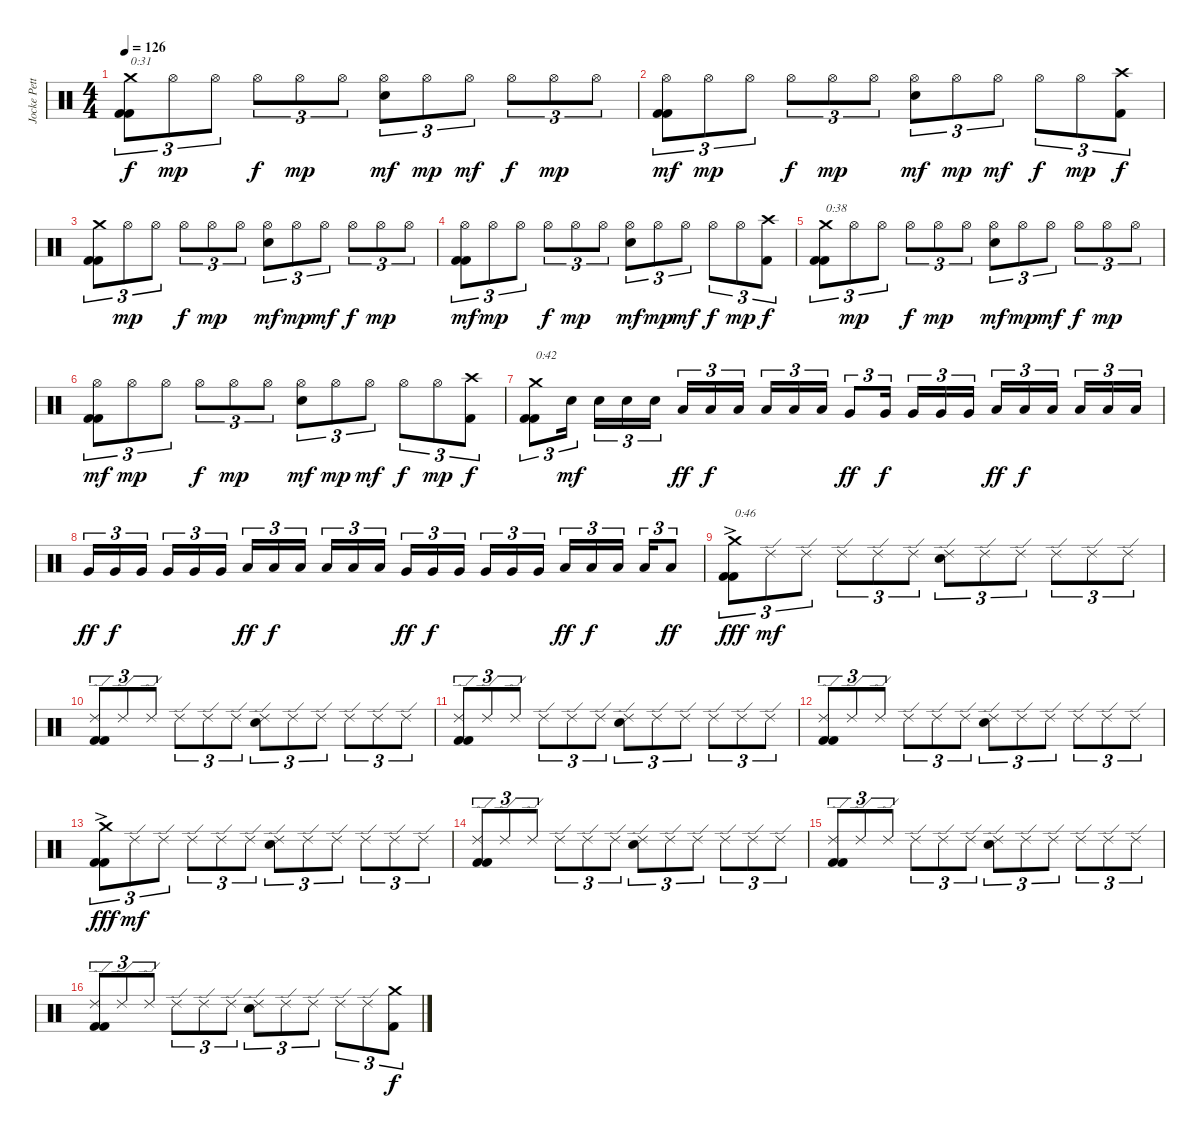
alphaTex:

\track ("Jocke Pettersson" "Jocke Pett") {instrument percussion}
\staff {score}
\articulation defaults
\ts (4 4)
\tempo 126
\clef neutral
\ks c
("Kick (hit) 2" "Kick (hit) 2" "Crash medium (hit)").8{tu (3 2) txt "0:31" dy f} "Hi-Hat (open)".8{tu (3 2) dy mp} "Hi-Hat (open)".8{tu (3 2)} "Hi-Hat (open)".8{tu (3 2) dy f} "Hi-Hat (open)".8{tu (3 2) dy mp} "Hi-Hat (open)".8{tu (3 2)} ("Electric Snare (hit)" "Hi-Hat (open)").8{tu (3 2) dy mf} "Hi-Hat (open)".8{tu (3 2) dy mp} "Hi-Hat (open)".8{tu (3 2) dy mf} "Hi-Hat (open)".8{tu (3 2) dy f} "Hi-Hat (open)".8{tu (3 2) dy mp} "Hi-Hat (open)".8{tu (3 2)} |
("Kick (hit) 2" "Kick (hit) 2" "Hi-Hat (open)").8{tu (3 2) dy mf} "Hi-Hat (open)".8{tu (3 2) dy mp} "Hi-Hat (open)".8{tu (3 2)} "Hi-Hat (open)".8{tu (3 2) dy f} "Hi-Hat (open)".8{tu (3 2) dy mp} "Hi-Hat (open)".8{tu (3 2)} ("Electric Snare (hit)" "Hi-Hat (open)").8{tu (3 2) dy mf} "Hi-Hat (open)".8{tu (3 2) dy mp} "Hi-Hat (open)".8{tu (3 2) dy mf} "Hi-Hat (open)".8{tu (3 2) dy f} "Hi-Hat (open)".8{tu (3 2) dy mp} ("Kick (hit) 2" "Crash high (hit)").8{tu (3 2) dy f} |
("Kick (hit) 2" "Kick (hit) 2" "Crash medium (hit)").8{tu (3 2)} "Hi-Hat (open)".8{tu (3 2) dy mp} "Hi-Hat (open)".8{tu (3 2)} "Hi-Hat (open)".8{tu (3 2) dy f} "Hi-Hat (open)".8{tu (3 2) dy mp} "Hi-Hat (open)".8{tu (3 2)} ("Electric Snare (hit)" "Hi-Hat (open)").8{tu (3 2) dy mf} "Hi-Hat (open)".8{tu (3 2) dy mp} "Hi-Hat (open)".8{tu (3 2) dy mf} "Hi-Hat (open)".8{tu (3 2) dy f} "Hi-Hat (open)".8{tu (3 2) dy mp} "Hi-Hat (open)".8{tu (3 2)} |
("Kick (hit) 2" "Kick (hit) 2" "Hi-Hat (open)").8{tu (3 2) dy mf} "Hi-Hat (open)".8{tu (3 2) dy mp} "Hi-Hat (open)".8{tu (3 2)} "Hi-Hat (open)".8{tu (3 2) dy f} "Hi-Hat (open)".8{tu (3 2) dy mp} "Hi-Hat (open)".8{tu (3 2)} ("Electric Snare (hit)" "Hi-Hat (open)").8{tu (3 2) dy mf} "Hi-Hat (open)".8{tu (3 2) dy mp} "Hi-Hat (open)".8{tu (3 2) dy mf} "Hi-Hat (open)".8{tu (3 2) dy f} "Hi-Hat (open)".8{tu (3 2) dy mp} ("Kick (hit) 2" "Crash high (hit)").8{tu (3 2) dy f} |
("Kick (hit) 2" "Kick (hit) 2" "Crash medium (hit)").8{tu (3 2) txt "0:38"} "Hi-Hat (open)".8{tu (3 2) dy mp} "Hi-Hat (open)".8{tu (3 2)} "Hi-Hat (open)".8{tu (3 2) dy f} "Hi-Hat (open)".8{tu (3 2) dy mp} "Hi-Hat (open)".8{tu (3 2)} ("Electric Snare (hit)" "Hi-Hat (open)").8{tu (3 2) dy mf} "Hi-Hat (open)".8{tu (3 2) dy mp} "Hi-Hat (open)".8{tu (3 2) dy mf} "Hi-Hat (open)".8{tu (3 2) dy f} "Hi-Hat (open)".8{tu (3 2) dy mp} "Hi-Hat (open)".8{tu (3 2)} |
("Kick (hit) 2" "Kick (hit) 2" "Hi-Hat (open)").8{tu (3 2) dy mf} "Hi-Hat (open)".8{tu (3 2) dy mp} "Hi-Hat (open)".8{tu (3 2)} "Hi-Hat (open)".8{tu (3 2) dy f} "Hi-Hat (open)".8{tu (3 2) dy mp} "Hi-Hat (open)".8{tu (3 2)} ("Electric Snare (hit)" "Hi-Hat (open)").8{tu (3 2) dy mf} "Hi-Hat (open)".8{tu (3 2) dy mp} "Hi-Hat (open)".8{tu (3 2) dy mf} "Hi-Hat (open)".8{tu (3 2) dy f} "Hi-Hat (open)".8{tu (3 2) dy mp} ("Kick (hit) 2" "Crash high (hit)").8{tu (3 2) dy f} |
("Kick (hit) 2" "Kick (hit) 2" "Crash medium (hit)").8{tu (3 2) txt "0:42"} "Electric Snare (hit)".16{tu (3 2) dy mf} "Electric Snare (hit)".16{tu (3 2)} "Electric Snare (hit)".16{tu (3 2)} "Electric Snare (hit)".16{tu (3 2)} "Low Tom (hit)".16{tu (3 2) dy ff} "Low Tom (hit)".16{tu (3 2) dy f} "Low Tom (hit)".16{tu (3 2)} "Low Tom (hit)".16{tu (3 2)} "Low Tom (hit)".16{tu (3 2)} "Low Tom (hit)".16{tu (3 2)} "Very Low Tom (hit)".8{tu (3 2) dy ff} "Very Low Tom (hit)".16{tu (3 2) dy f} "Very Low Tom (hit)".16{tu (3 2)} "Very Low Tom (hit)".16{tu (3 2)} "Very Low Tom (hit)".16{tu (3 2)} "Low Tom (hit)".16{tu (3 2) dy ff} "Low Tom (hit)".16{tu (3 2) dy f} "Low Tom (hit)".16{tu (3 2)} "Low Tom (hit)".16{tu (3 2)} "Low Tom (hit)".16{tu (3 2)} "Low Tom (hit)".16{tu (3 2)} |
"Very Low Tom (hit)".16{tu (3 2) dy ff} "Very Low Tom (hit)".16{tu (3 2) dy f} "Very Low Tom (hit)".16{tu (3 2)} "Very Low Tom (hit)".16{tu (3 2)} "Very Low Tom (hit)".16{tu (3 2)} "Very Low Tom (hit)".16{tu (3 2)} "Low Tom (hit)".16{tu (3 2) dy ff} "Low Tom (hit)".16{tu (3 2) dy f} "Low Tom (hit)".16{tu (3 2)} "Low Tom (hit)".16{tu (3 2)} "Low Tom (hit)".16{tu (3 2)} "Low Tom (hit)".16{tu (3 2)} "Very Low Tom (hit)".16{tu (3 2) dy ff} "Very Low Tom (hit)".16{tu (3 2) dy f} "Very Low Tom (hit)".16{tu (3 2)} "Very Low Tom (hit)".16{tu (3 2)} "Very Low Tom (hit)".16{tu (3 2)} "Very Low Tom (hit)".16{tu (3 2)} "Low Floor Tom (hit)".16{tu (3 2) dy ff} "Low Floor Tom (hit)".16{tu (3 2) dy f} "Low Floor Tom (hit)".16{tu (3 2)} "Low Floor Tom (hit)".16{tu (3 2)} "Low Floor Tom (hit)".8{tu (3 2) dy ff} |
("Kick (hit) 2" "Kick (hit) 2" "Crash medium (hit)"{ac}).8{tu (3 2) txt "0:46" dy fff} "Ride (edge) 2".8{tu (3 2) dy mf} "Ride (edge) 2".8{tu (3 2)} "Ride (edge) 2".8{tu (3 2)} "Ride (edge) 2".8{tu (3 2)} "Ride (edge) 2".8{tu (3 2)} ("Electric Snare (hit)" "Ride (edge) 2").8{tu (3 2)} "Ride (edge) 2".8{tu (3 2)} "Ride (edge) 2".8{tu (3 2)} "Ride (edge) 2".8{tu (3 2)} "Ride (edge) 2".8{tu (3 2)} "Ride (edge) 2".8{tu (3 2)} |
("Kick (hit) 2" "Kick (hit) 2" "Ride (edge) 2").8{tu (3 2)} "Ride (edge) 2".8{tu (3 2)} "Ride (edge) 2".8{tu (3 2)} "Ride (edge) 2".8{tu (3 2)} "Ride (edge) 2".8{tu (3 2)} "Ride (edge) 2".8{tu (3 2)} ("Electric Snare (hit)" "Ride (edge) 2").8{tu (3 2)} "Ride (edge) 2".8{tu (3 2)} "Ride (edge) 2".8{tu (3 2)} "Ride (edge) 2".8{tu (3 2)} "Ride (edge) 2".8{tu (3 2)} "Ride (edge) 2".8{tu (3 2)} |
("Kick (hit) 2" "Kick (hit) 2" "Ride (edge) 2").8{tu (3 2)} "Ride (edge) 2".8{tu (3 2)} "Ride (edge) 2".8{tu (3 2)} "Ride (edge) 2".8{tu (3 2)} "Ride (edge) 2".8{tu (3 2)} "Ride (edge) 2".8{tu (3 2)} ("Electric Snare (hit)" "Ride (edge) 2").8{tu (3 2)} "Ride (edge) 2".8{tu (3 2)} "Ride (edge) 2".8{tu (3 2)} "Ride (edge) 2".8{tu (3 2)} "Ride (edge) 2".8{tu (3 2)} "Ride (edge) 2".8{tu (3 2)} |
("Kick (hit) 2" "Kick (hit) 2" "Ride (edge) 2").8{tu (3 2)} "Ride (edge) 2".8{tu (3 2)} "Ride (edge) 2".8{tu (3 2)} "Ride (edge) 2".8{tu (3 2)} "Ride (edge) 2".8{tu (3 2)} "Ride (edge) 2".8{tu (3 2)} ("Electric Snare (hit)" "Ride (edge) 2").8{tu (3 2)} "Ride (edge) 2".8{tu (3 2)} "Ride (edge) 2".8{tu (3 2)} "Ride (edge) 2".8{tu (3 2)} "Ride (edge) 2".8{tu (3 2)} "Ride (edge) 2".8{tu (3 2)} |
("Kick (hit) 2" "Kick (hit) 2" "Crash medium (hit)"{ac}).8{tu (3 2) dy fff} "Ride (edge) 2".8{tu (3 2) dy mf} "Ride (edge) 2".8{tu (3 2)} "Ride (edge) 2".8{tu (3 2)} "Ride (edge) 2".8{tu (3 2)} "Ride (edge) 2".8{tu (3 2)} ("Electric Snare (hit)" "Ride (edge) 2").8{tu (3 2)} "Ride (edge) 2".8{tu (3 2)} "Ride (edge) 2".8{tu (3 2)} "Ride (edge) 2".8{tu (3 2)} "Ride (edge) 2".8{tu (3 2)} "Ride (edge) 2".8{tu (3 2)} |
("Kick (hit) 2" "Kick (hit) 2" "Ride (edge) 2").8{tu (3 2)} "Ride (edge) 2".8{tu (3 2)} "Ride (edge) 2".8{tu (3 2)} "Ride (edge) 2".8{tu (3 2)} "Ride (edge) 2".8{tu (3 2)} "Ride (edge) 2".8{tu (3 2)} ("Electric Snare (hit)" "Ride (edge) 2").8{tu (3 2)} "Ride (edge) 2".8{tu (3 2)} "Ride (edge) 2".8{tu (3 2)} "Ride (edge) 2".8{tu (3 2)} "Ride (edge) 2".8{tu (3 2)} "Ride (edge) 2".8{tu (3 2)} |
("Kick (hit) 2" "Kick (hit) 2" "Ride (edge) 2").8{tu (3 2)} "Ride (edge) 2".8{tu (3 2)} "Ride (edge) 2".8{tu (3 2)} "Ride (edge) 2".8{tu (3 2)} "Ride (edge) 2".8{tu (3 2)} "Ride (edge) 2".8{tu (3 2)} ("Electric Snare (hit)" "Ride (edge) 2").8{tu (3 2)} "Ride (edge) 2".8{tu (3 2)} "Ride (edge) 2".8{tu (3 2)} "Ride (edge) 2".8{tu (3 2)} "Ride (edge) 2".8{tu (3 2)} "Ride (edge) 2".8{tu (3 2)} |
("Kick (hit) 2" "Kick (hit) 2" "Ride (edge) 2").8{tu (3 2)} "Ride (edge) 2".8{tu (3 2)} "Ride (edge) 2".8{tu (3 2)} "Ride (edge) 2".8{tu (3 2)} "Ride (edge) 2".8{tu (3 2)} "Ride (edge) 2".8{tu (3 2)} ("Electric Snare (hit)" "Ride (edge) 2").8{tu (3 2)} "Ride (edge) 2".8{tu (3 2)} "Ride (edge) 2".8{tu (3 2)} "Ride (edge) 2".8{tu (3 2)} "Ride (edge) 2".8{tu (3 2)} ("Kick (hit) 2" "Crash medium (hit)").8{tu (3 2) dy f}
